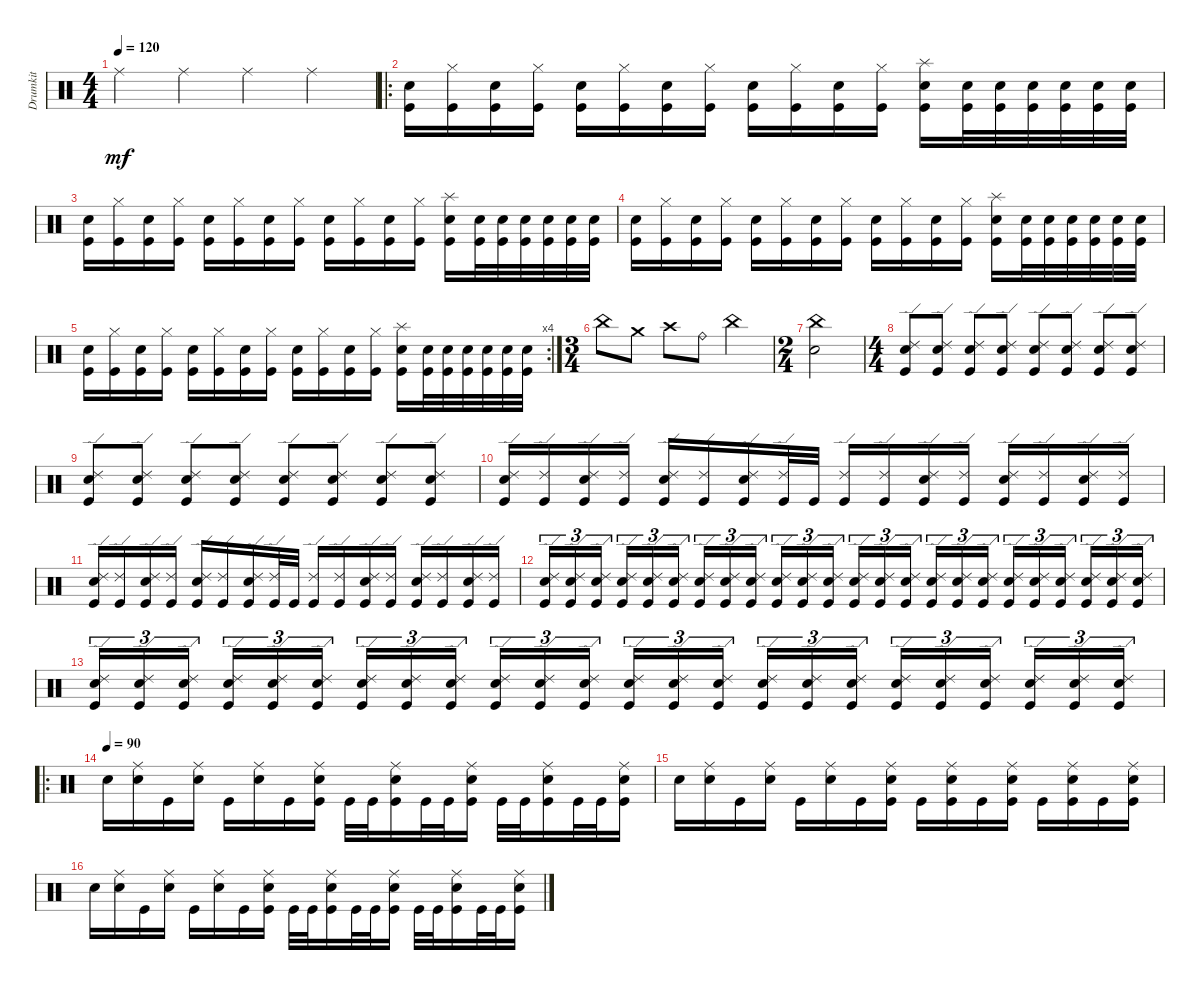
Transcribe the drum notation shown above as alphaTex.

\track ("Drumkit" "Drumkit") {instrument percussion}
\staff {score}
\articulation defaults
\ts (4 4)
\tempo 120
\clef neutral
\ks c "Ride (middle)".4{dy mf} "Ride (middle)".4 "Ride (middle)".4 "Ride (middle)".4
|
\ro
("Kick (hit)" "Snare (hit) 2").16 ("Kick (hit)" "Hi-Hat (closed)").16 ("Kick (hit)" "Snare (hit) 2").16 ("Kick (hit)" "Hi-Hat (closed)").16 ("Kick (hit)" "Snare (hit) 2").16 ("Kick (hit)" "Hi-Hat (closed)").16 ("Kick (hit)" "Snare (hit) 2").16 ("Kick (hit)" "Hi-Hat (closed)").16 ("Kick (hit)" "Snare (hit) 2").16 ("Kick (hit)" "Hi-Hat (closed)").16 ("Kick (hit)" "Snare (hit) 2").16 ("Kick (hit)" "Hi-Hat (closed)").16 ("Kick (hit)" "Snare (hit) 2" "Splash (hit)").16 ("Kick (hit)" "Snare (hit) 2").32 ("Kick (hit)" "Snare (hit) 2").32 ("Kick (hit)" "Snare (hit) 2").32 ("Kick (hit)" "Snare (hit) 2").32 ("Kick (hit)" "Snare (hit) 2").32 ("Kick (hit)" "Snare (hit) 2").32 |
("Kick (hit)" "Snare (hit) 2").16 ("Kick (hit)" "Hi-Hat (closed)").16 ("Kick (hit)" "Snare (hit) 2").16 ("Kick (hit)" "Hi-Hat (closed)").16 ("Kick (hit)" "Snare (hit) 2").16 ("Kick (hit)" "Hi-Hat (closed)").16 ("Kick (hit)" "Snare (hit) 2").16 ("Kick (hit)" "Hi-Hat (closed)").16 ("Kick (hit)" "Snare (hit) 2").16 ("Kick (hit)" "Hi-Hat (closed)").16 ("Kick (hit)" "Snare (hit) 2").16 ("Kick (hit)" "Hi-Hat (closed)").16 ("Kick (hit)" "Snare (hit) 2" "Splash (hit)").16 ("Kick (hit)" "Snare (hit) 2").32 ("Kick (hit)" "Snare (hit) 2").32 ("Kick (hit)" "Snare (hit) 2").32 ("Kick (hit)" "Snare (hit) 2").32 ("Kick (hit)" "Snare (hit) 2").32 ("Kick (hit)" "Snare (hit) 2").32 |
("Kick (hit)" "Snare (hit) 2").16 ("Kick (hit)" "Hi-Hat (closed)").16 ("Kick (hit)" "Snare (hit) 2").16 ("Kick (hit)" "Hi-Hat (closed)").16 ("Kick (hit)" "Snare (hit) 2").16 ("Kick (hit)" "Hi-Hat (closed)").16 ("Kick (hit)" "Snare (hit) 2").16 ("Kick (hit)" "Hi-Hat (closed)").16 ("Kick (hit)" "Snare (hit) 2").16 ("Kick (hit)" "Hi-Hat (closed)").16 ("Kick (hit)" "Snare (hit) 2").16 ("Kick (hit)" "Hi-Hat (closed)").16 ("Kick (hit)" "Snare (hit) 2" "Splash (hit)").16 ("Kick (hit)" "Snare (hit) 2").32 ("Kick (hit)" "Snare (hit) 2").32 ("Kick (hit)" "Snare (hit) 2").32 ("Kick (hit)" "Snare (hit) 2").32 ("Kick (hit)" "Snare (hit) 2").32 ("Kick (hit)" "Snare (hit) 2").32 |
\rc 4
("Kick (hit)" "Snare (hit) 2").16 ("Kick (hit)" "Hi-Hat (closed)").16 ("Kick (hit)" "Snare (hit) 2").16 ("Kick (hit)" "Hi-Hat (closed)").16 ("Kick (hit)" "Snare (hit) 2").16 ("Kick (hit)" "Hi-Hat (closed)").16 ("Kick (hit)" "Snare (hit) 2").16 ("Kick (hit)" "Hi-Hat (closed)").16 ("Kick (hit)" "Snare (hit) 2").16 ("Kick (hit)" "Hi-Hat (closed)").16 ("Kick (hit)" "Snare (hit) 2").16 ("Kick (hit)" "Hi-Hat (closed)").16 ("Kick (hit)" "Snare (hit) 2" "Splash (hit)").16 ("Kick (hit)" "Snare (hit) 2").32 ("Kick (hit)" "Snare (hit) 2").32 ("Kick (hit)" "Snare (hit) 2").32 ("Kick (hit)" "Snare (hit) 2").32 ("Kick (hit)" "Snare (hit) 2").32 ("Kick (hit)" "Snare (hit) 2").32 |
\ts (3 4)
"China (hit)".8 "Crash medium (hit)".8 "Crash high (hit)".8 "Ride (bell)".8 "China (hit)".4 |
\ts (2 4)
("Snare (hit) 2" "China (hit)").2 |
\ts (4 4)
("Kick (hit)" "Snare (hit) 2" "Ride (edge) 2").8 ("Kick (hit)" "Snare (hit) 2" "Ride (edge) 2").8 ("Kick (hit)" "Snare (hit) 2" "Ride (edge) 2").8 ("Kick (hit)" "Snare (hit) 2" "Ride (edge) 2").8 ("Kick (hit)" "Snare (hit) 2" "Ride (edge) 2").8 ("Kick (hit)" "Snare (hit) 2" "Ride (edge) 2").8 ("Kick (hit)" "Snare (hit) 2" "Ride (edge) 2").8 ("Kick (hit)" "Snare (hit) 2" "Ride (edge) 2").8 |
("Kick (hit)" "Snare (hit) 2" "Ride (edge) 2").8 ("Kick (hit)" "Snare (hit) 2" "Ride (edge) 2").8 ("Kick (hit)" "Snare (hit) 2" "Ride (edge) 2").8 ("Kick (hit)" "Snare (hit) 2" "Ride (edge) 2").8 ("Kick (hit)" "Snare (hit) 2" "Ride (edge) 2").8 ("Kick (hit)" "Snare (hit) 2" "Ride (edge) 2").8 ("Kick (hit)" "Snare (hit) 2" "Ride (edge) 2").8 ("Kick (hit)" "Snare (hit) 2" "Ride (edge) 2").8 |
("Kick (hit)" "Snare (hit) 2" "Ride (edge) 2").16 ("Kick (hit)" "Ride (edge) 2").16 ("Kick (hit)" "Snare (hit) 2" "Ride (edge) 2").16 ("Kick (hit)" "Ride (edge) 2").16 ("Kick (hit)" "Snare (hit) 2" "Ride (edge) 2").16 ("Kick (hit)" "Ride (edge) 2").16 ("Kick (hit)" "Snare (hit) 2" "Ride (edge) 2").16 ("Kick (hit)" "Ride (edge) 2").32 "Kick (hit)".32 ("Kick (hit)" "Ride (edge) 2").16 ("Kick (hit)" "Ride (edge) 2").16 ("Kick (hit)" "Snare (hit) 2" "Ride (edge) 2").16 ("Kick (hit)" "Ride (edge) 2").16 ("Kick (hit)" "Snare (hit) 2" "Ride (edge) 2").16 ("Kick (hit)" "Ride (edge) 2").16 ("Kick (hit)" "Snare (hit) 2" "Ride (edge) 2").16 ("Kick (hit)" "Ride (edge) 2").16 |
("Kick (hit)" "Snare (hit) 2" "Ride (edge) 2").16 ("Kick (hit)" "Ride (edge) 2").16 ("Kick (hit)" "Snare (hit) 2" "Ride (edge) 2").16 ("Kick (hit)" "Ride (edge) 2").16 ("Kick (hit)" "Snare (hit) 2" "Ride (edge) 2").16 ("Kick (hit)" "Ride (edge) 2").16 ("Kick (hit)" "Snare (hit) 2" "Ride (edge) 2").16 ("Kick (hit)" "Ride (edge) 2").32 "Kick (hit)".32 ("Kick (hit)" "Ride (edge) 2").16 ("Kick (hit)" "Ride (edge) 2").16 ("Kick (hit)" "Snare (hit) 2" "Ride (edge) 2").16 ("Kick (hit)" "Ride (edge) 2").16 ("Kick (hit)" "Snare (hit) 2" "Ride (edge) 2").16 ("Kick (hit)" "Ride (edge) 2").16 ("Kick (hit)" "Snare (hit) 2" "Ride (edge) 2").16 ("Kick (hit)" "Ride (edge) 2").16 |
("Kick (hit)" "Snare (hit) 2" "Ride (edge) 2").16{tu (3 2)} ("Kick (hit)" "Snare (hit) 2" "Ride (edge) 2").16{tu (3 2)} ("Kick (hit)" "Snare (hit) 2" "Ride (edge) 2").16{tu (3 2)} ("Kick (hit)" "Snare (hit) 2" "Ride (edge) 2").16{tu (3 2)} ("Kick (hit)" "Snare (hit) 2" "Ride (edge) 2").16{tu (3 2)} ("Kick (hit)" "Snare (hit) 2" "Ride (edge) 2").16{tu (3 2)} ("Kick (hit)" "Snare (hit) 2" "Ride (edge) 2").16{tu (3 2)} ("Kick (hit)" "Snare (hit) 2" "Ride (edge) 2").16{tu (3 2)} ("Kick (hit)" "Snare (hit) 2" "Ride (edge) 2").16{tu (3 2)} ("Kick (hit)" "Snare (hit) 2" "Ride (edge) 2").16{tu (3 2)} ("Kick (hit)" "Snare (hit) 2" "Ride (edge) 2").16{tu (3 2)} ("Kick (hit)" "Snare (hit) 2" "Ride (edge) 2").16{tu (3 2)} ("Kick (hit)" "Snare (hit) 2" "Ride (edge) 2").16{tu (3 2)} ("Kick (hit)" "Snare (hit) 2" "Ride (edge) 2").16{tu (3 2)} ("Kick (hit)" "Snare (hit) 2" "Ride (edge) 2").16{tu (3 2)} ("Kick (hit)" "Snare (hit) 2" "Ride (edge) 2").16{tu (3 2)} ("Kick (hit)" "Snare (hit) 2" "Ride (edge) 2").16{tu (3 2)} ("Kick (hit)" "Snare (hit) 2" "Ride (edge) 2").16{tu (3 2)} ("Kick (hit)" "Snare (hit) 2" "Ride (edge) 2").16{tu (3 2)} ("Kick (hit)" "Snare (hit) 2" "Ride (edge) 2").16{tu (3 2)} ("Kick (hit)" "Snare (hit) 2" "Ride (edge) 2").16{tu (3 2)} ("Kick (hit)" "Snare (hit) 2" "Ride (edge) 2").16{tu (3 2)} ("Kick (hit)" "Snare (hit) 2" "Ride (edge) 2").16{tu (3 2)} ("Kick (hit)" "Snare (hit) 2" "Ride (edge) 2").16{tu (3 2)} |
("Kick (hit)" "Snare (hit) 2" "Ride (edge) 2").16{tu (3 2)} ("Kick (hit)" "Snare (hit) 2" "Ride (edge) 2").16{tu (3 2)} ("Kick (hit)" "Snare (hit) 2" "Ride (edge) 2").16{tu (3 2)} ("Kick (hit)" "Snare (hit) 2" "Ride (edge) 2").16{tu (3 2)} ("Kick (hit)" "Snare (hit) 2" "Ride (edge) 2").16{tu (3 2)} ("Kick (hit)" "Snare (hit) 2" "Ride (edge) 2").16{tu (3 2)} ("Kick (hit)" "Snare (hit) 2" "Ride (edge) 2").16{tu (3 2)} ("Kick (hit)" "Snare (hit) 2" "Ride (edge) 2").16{tu (3 2)} ("Kick (hit)" "Snare (hit) 2" "Ride (edge) 2").16{tu (3 2)} ("Kick (hit)" "Snare (hit) 2" "Ride (edge) 2").16{tu (3 2)} ("Kick (hit)" "Snare (hit) 2" "Ride (edge) 2").16{tu (3 2)} ("Kick (hit)" "Snare (hit) 2" "Ride (edge) 2").16{tu (3 2)} ("Kick (hit)" "Snare (hit) 2" "Ride (edge) 2").16{tu (3 2)} ("Kick (hit)" "Snare (hit) 2" "Ride (edge) 2").16{tu (3 2)} ("Kick (hit)" "Snare (hit) 2" "Ride (edge) 2").16{tu (3 2)} ("Kick (hit)" "Snare (hit) 2" "Ride (edge) 2").16{tu (3 2)} ("Kick (hit)" "Snare (hit) 2" "Ride (edge) 2").16{tu (3 2)} ("Kick (hit)" "Snare (hit) 2" "Ride (edge) 2").16{tu (3 2)} ("Kick (hit)" "Snare (hit) 2" "Ride (edge) 2").16{tu (3 2)} ("Kick (hit)" "Snare (hit) 2" "Ride (edge) 2").16{tu (3 2)} ("Kick (hit)" "Snare (hit) 2" "Ride (edge) 2").16{tu (3 2)} ("Kick (hit)" "Snare (hit) 2" "Ride (edge) 2").16{tu (3 2)} ("Kick (hit)" "Snare (hit) 2" "Ride (edge) 2").16{tu (3 2)} ("Kick (hit)" "Snare (hit) 2" "Ride (edge) 2").16{tu (3 2)} |
\ro
\tempo (90)
"Snare (hit) 2".16 ("Snare (hit) 2" "Ride (middle)").16 "Kick (hit)".16 ("Snare (hit) 2" "Ride (middle)").16 "Kick (hit)".16 ("Snare (hit) 2" "Ride (middle)").16 "Kick (hit)".16 ("Kick (hit)" "Snare (hit) 2" "Ride (middle)").16 "Kick (hit)".32 "Kick (hit)".32 ("Kick (hit)" "Snare (hit) 2" "Ride (middle)").16 "Kick (hit)".32 "Kick (hit)".32 ("Kick (hit)" "Snare (hit) 2" "Ride (middle)").16 "Kick (hit)".32 "Kick (hit)".32 ("Kick (hit)" "Snare (hit) 2" "Ride (middle)").16 "Kick (hit)".32 "Kick (hit)".32 ("Kick (hit)" "Snare (hit) 2" "Ride (middle)").16 |
"Snare (hit) 2".16 ("Snare (hit) 2" "Ride (middle)").16 "Kick (hit)".16 ("Snare (hit) 2" "Ride (middle)").16 "Kick (hit)".16 ("Snare (hit) 2" "Ride (middle)").16 "Kick (hit)".16 ("Kick (hit)" "Snare (hit) 2" "Ride (middle)").16 "Kick (hit)".16 ("Kick (hit)" "Snare (hit) 2" "Ride (middle)").16 "Kick (hit)".16 ("Kick (hit)" "Snare (hit) 2" "Ride (middle)").16 "Kick (hit)".16 ("Kick (hit)" "Snare (hit) 2" "Ride (middle)").16 "Kick (hit)".16 ("Kick (hit)" "Snare (hit) 2" "Ride (middle)").16 |
"Snare (hit) 2".16 ("Snare (hit) 2" "Ride (middle)").16 "Kick (hit)".16 ("Snare (hit) 2" "Ride (middle)").16 "Kick (hit)".16 ("Snare (hit) 2" "Ride (middle)").16 "Kick (hit)".16 ("Kick (hit)" "Snare (hit) 2" "Ride (middle)").16 "Kick (hit)".32 "Kick (hit)".32 ("Kick (hit)" "Snare (hit) 2" "Ride (middle)").16 "Kick (hit)".32 "Kick (hit)".32 ("Kick (hit)" "Snare (hit) 2" "Ride (middle)").16 "Kick (hit)".32 "Kick (hit)".32 ("Kick (hit)" "Snare (hit) 2" "Ride (middle)").16 "Kick (hit)".32 "Kick (hit)".32 ("Kick (hit)" "Snare (hit) 2" "Ride (middle)").16
